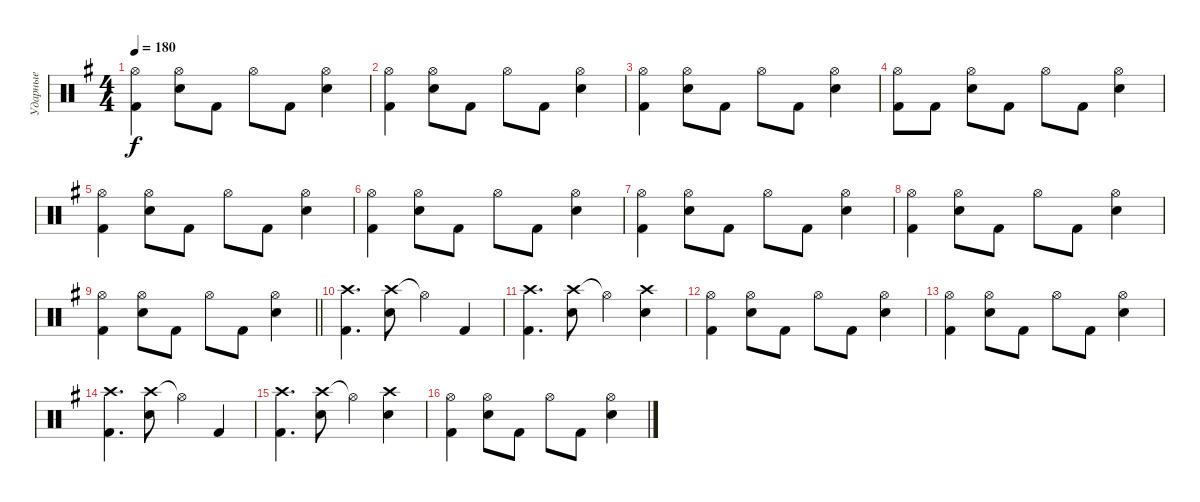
\track ("Ударные" "Ударные") {instrument percussion}
\staff {score}
\articulation defaults
\ts (4 4)
\tempo 180
\clef neutral
\ks g
("Hi-Hat (open)" "Kick (hit) 2").4{dy f} ("Hi-Hat (open)" "Snare (hit) 2").8 "Kick (hit) 2".8 "Hi-Hat (open)".8 "Kick (hit) 2".8 ("Hi-Hat (open)" "Snare (hit) 2").4 |
("Hi-Hat (open)" "Kick (hit) 2").4 ("Hi-Hat (open)" "Snare (hit) 2").8 "Kick (hit) 2".8 "Hi-Hat (open)".8 "Kick (hit) 2".8 ("Hi-Hat (open)" "Snare (hit) 2").4 |
("Hi-Hat (open)" "Kick (hit) 2").4 ("Hi-Hat (open)" "Snare (hit) 2").8 "Kick (hit) 2".8 "Hi-Hat (open)".8 "Kick (hit) 2".8 ("Hi-Hat (open)" "Snare (hit) 2").4 |
("Hi-Hat (open)" "Kick (hit) 2").8 "Kick (hit) 2".8 ("Hi-Hat (open)" "Snare (hit) 2").8 "Kick (hit) 2".8 "Hi-Hat (open)".8 "Kick (hit) 2".8 ("Hi-Hat (open)" "Snare (hit) 2").4 |
("Hi-Hat (open)" "Kick (hit) 2").4 ("Hi-Hat (open)" "Snare (hit) 2").8 "Kick (hit) 2".8 "Hi-Hat (open)".8 "Kick (hit) 2".8 ("Hi-Hat (open)" "Snare (hit) 2").4 |
("Hi-Hat (open)" "Kick (hit) 2").4 ("Hi-Hat (open)" "Snare (hit) 2").8 "Kick (hit) 2".8 "Hi-Hat (open)".8 "Kick (hit) 2".8 ("Hi-Hat (open)" "Snare (hit) 2").4 |
("Hi-Hat (open)" "Kick (hit) 2").4 ("Hi-Hat (open)" "Snare (hit) 2").8 "Kick (hit) 2".8 "Hi-Hat (open)".8 "Kick (hit) 2".8 ("Hi-Hat (open)" "Snare (hit) 2").4 |
("Hi-Hat (open)" "Kick (hit) 2").4 ("Hi-Hat (open)" "Snare (hit) 2").8 "Kick (hit) 2".8 "Hi-Hat (open)".8 "Kick (hit) 2".8 ("Hi-Hat (open)" "Snare (hit) 2").4 |
\barLineRight lightlight
("Hi-Hat (open)" "Kick (hit) 2").4 ("Hi-Hat (open)" "Snare (hit) 2").8 "Kick (hit) 2".8 "Hi-Hat (open)".8 "Kick (hit) 2".8 ("Hi-Hat (open)" "Snare (hit) 2").4 |
("Crash high (hit)" "Kick (hit) 2").4{d} ("Crash high (hit)" "Snare (hit) 2").8 "Hi-Hat (open)"{t}.4 "Kick (hit) 2".4 |
("Crash high (hit)" "Kick (hit) 2").4{d} ("Crash high (hit)" "Snare (hit) 2").8 "Hi-Hat (open)"{t}.4 ("Crash high (hit)" "Snare (hit) 2").4 |
("Hi-Hat (open)" "Kick (hit) 2").4 ("Hi-Hat (open)" "Snare (hit) 2").8 "Kick (hit) 2".8 "Hi-Hat (open)".8 "Kick (hit) 2".8 ("Hi-Hat (open)" "Snare (hit) 2").4 |
("Hi-Hat (open)" "Kick (hit) 2").4 ("Hi-Hat (open)" "Snare (hit) 2").8 "Kick (hit) 2".8 "Hi-Hat (open)".8 "Kick (hit) 2".8 ("Hi-Hat (open)" "Snare (hit) 2").4 |
("Crash high (hit)" "Kick (hit) 2").4{d} ("Crash high (hit)" "Snare (hit) 2").8 "Hi-Hat (open)"{t}.4 "Kick (hit) 2".4 |
("Crash high (hit)" "Kick (hit) 2").4{d} ("Crash high (hit)" "Snare (hit) 2").8 "Hi-Hat (open)"{t}.4 ("Crash high (hit)" "Snare (hit) 2").4 |
("Hi-Hat (open)" "Kick (hit) 2").4 ("Hi-Hat (open)" "Snare (hit) 2").8 "Kick (hit) 2".8 "Hi-Hat (open)".8 "Kick (hit) 2".8 ("Hi-Hat (open)" "Snare (hit) 2").4
